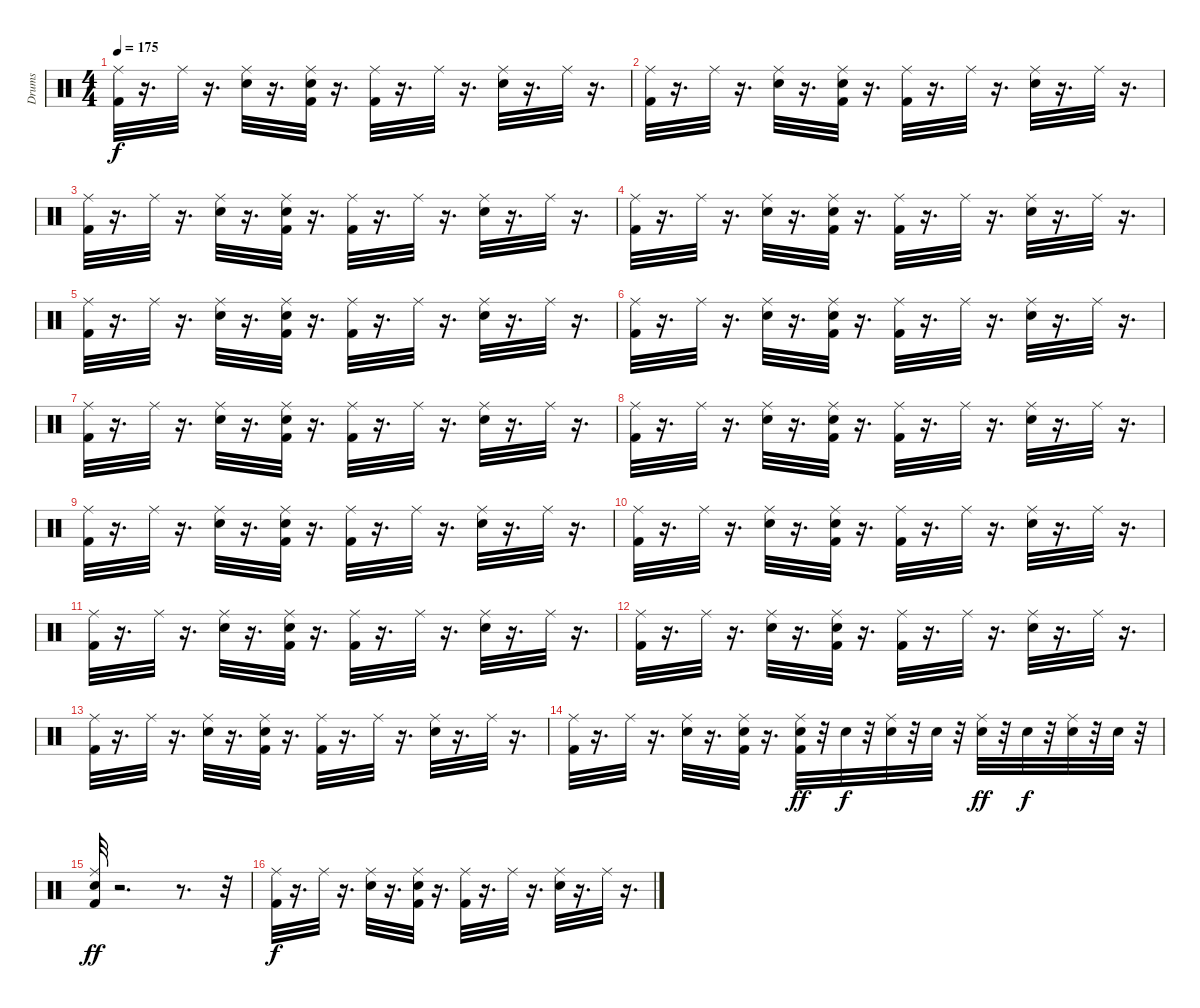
\track ("Drums" "Drums") {instrument percussion}
\staff {score}
\articulation defaults
\ts (4 4)
\tempo 175
\clef neutral
\ks c
("Kick (hit) 2" "Ride (middle)").32{dy f} r.16{d} "Ride (middle)".32 r.16{d} ("Snare (hit) 2" "Ride (middle)").32 r.16{d} ("Snare (hit) 2" "Ride (middle)" "Kick (hit) 2").32 r.16{d} ("Ride (middle)" "Kick (hit) 2").32 r.16{d} "Ride (middle)".32 r.16{d} ("Snare (hit) 2" "Ride (middle)").32 r.16{d} "Ride (middle)".32 r.16{d} |
("Kick (hit) 2" "Ride (middle)").32 r.16{d} "Ride (middle)".32 r.16{d} ("Ride (middle)" "Snare (hit) 2").32 r.16{d} ("Kick (hit) 2" "Snare (hit) 2" "Ride (middle)").32 r.16{d} ("Kick (hit) 2" "Ride (middle)").32 r.16{d} "Ride (middle)".32 r.16{d} ("Snare (hit) 2" "Ride (middle)").32 r.16{d} "Ride (middle)".32 r.16{d} |
("Kick (hit) 2" "Ride (middle)").32 r.16{d} "Ride (middle)".32 r.16{d} ("Ride (middle)" "Snare (hit) 2").32 r.16{d} ("Snare (hit) 2" "Kick (hit) 2" "Ride (middle)").32 r.16{d} ("Kick (hit) 2" "Ride (middle)").32 r.16{d} "Ride (middle)".32 r.16{d} ("Snare (hit) 2" "Ride (middle)").32 r.16{d} "Ride (middle)".32 r.16{d} |
("Ride (middle)" "Kick (hit) 2").32 r.16{d} "Ride (middle)".32 r.16{d} ("Ride (middle)" "Snare (hit) 2").32 r.16{d} ("Ride (middle)" "Snare (hit) 2" "Kick (hit) 2").32 r.16{d} ("Ride (middle)" "Kick (hit) 2").32 r.16{d} "Ride (middle)".32 r.16{d} ("Ride (middle)" "Snare (hit) 2").32 r.16{d} "Ride (middle)".32 r.16{d} |
("Kick (hit) 2" "Ride (middle)").32 r.16{d} "Ride (middle)".32 r.16{d} ("Snare (hit) 2" "Ride (middle)").32 r.16{d} ("Snare (hit) 2" "Ride (middle)" "Kick (hit) 2").32 r.16{d} ("Ride (middle)" "Kick (hit) 2").32 r.16{d} "Ride (middle)".32 r.16{d} ("Snare (hit) 2" "Ride (middle)").32 r.16{d} "Ride (middle)".32 r.16{d} |
("Kick (hit) 2" "Ride (middle)").32 r.16{d} "Ride (middle)".32 r.16{d} ("Ride (middle)" "Snare (hit) 2").32 r.16{d} ("Kick (hit) 2" "Snare (hit) 2" "Ride (middle)").32 r.16{d} ("Kick (hit) 2" "Ride (middle)").32 r.16{d} "Ride (middle)".32 r.16{d} ("Snare (hit) 2" "Ride (middle)").32 r.16{d} "Ride (middle)".32 r.16{d} |
("Kick (hit) 2" "Ride (middle)").32 r.16{d} "Ride (middle)".32 r.16{d} ("Ride (middle)" "Snare (hit) 2").32 r.16{d} ("Snare (hit) 2" "Kick (hit) 2" "Ride (middle)").32 r.16{d} ("Kick (hit) 2" "Ride (middle)").32 r.16{d} "Ride (middle)".32 r.16{d} ("Snare (hit) 2" "Ride (middle)").32 r.16{d} "Ride (middle)".32 r.16{d} |
("Ride (middle)" "Kick (hit) 2").32 r.16{d} "Ride (middle)".32 r.16{d} ("Ride (middle)" "Snare (hit) 2").32 r.16{d} ("Ride (middle)" "Snare (hit) 2" "Kick (hit) 2").32 r.16{d} ("Ride (middle)" "Kick (hit) 2").32 r.16{d} "Ride (middle)".32 r.16{d} ("Ride (middle)" "Snare (hit) 2").32 r.16{d} "Ride (middle)".32 r.16{d} |
("Kick (hit) 2" "Ride (middle)").32 r.16{d} "Ride (middle)".32 r.16{d} ("Snare (hit) 2" "Ride (middle)").32 r.16{d} ("Snare (hit) 2" "Ride (middle)" "Kick (hit) 2").32 r.16{d} ("Ride (middle)" "Kick (hit) 2").32 r.16{d} "Ride (middle)".32 r.16{d} ("Snare (hit) 2" "Ride (middle)").32 r.16{d} "Ride (middle)".32 r.16{d} |
("Kick (hit) 2" "Ride (middle)").32 r.16{d} "Ride (middle)".32 r.16{d} ("Ride (middle)" "Snare (hit) 2").32 r.16{d} ("Kick (hit) 2" "Snare (hit) 2" "Ride (middle)").32 r.16{d} ("Kick (hit) 2" "Ride (middle)").32 r.16{d} "Ride (middle)".32 r.16{d} ("Snare (hit) 2" "Ride (middle)").32 r.16{d} "Ride (middle)".32 r.16{d} |
("Kick (hit) 2" "Ride (middle)").32 r.16{d} "Ride (middle)".32 r.16{d} ("Ride (middle)" "Snare (hit) 2").32 r.16{d} ("Snare (hit) 2" "Kick (hit) 2" "Ride (middle)").32 r.16{d} ("Kick (hit) 2" "Ride (middle)").32 r.16{d} "Ride (middle)".32 r.16{d} ("Snare (hit) 2" "Ride (middle)").32 r.16{d} "Ride (middle)".32 r.16{d} |
("Ride (middle)" "Kick (hit) 2").32 r.16{d} "Ride (middle)".32 r.16{d} ("Ride (middle)" "Snare (hit) 2").32 r.16{d} ("Ride (middle)" "Snare (hit) 2" "Kick (hit) 2").32 r.16{d} ("Ride (middle)" "Kick (hit) 2").32 r.16{d} "Ride (middle)".32 r.16{d} ("Ride (middle)" "Snare (hit) 2").32 r.16{d} "Ride (middle)".32 r.16{d} |
("Kick (hit) 2" "Ride (middle)").32 r.16{d} "Ride (middle)".32 r.16{d} ("Snare (hit) 2" "Ride (middle)").32 r.16{d} ("Snare (hit) 2" "Ride (middle)" "Kick (hit) 2").32 r.16{d} ("Ride (middle)" "Kick (hit) 2").32 r.16{d} "Ride (middle)".32 r.16{d} ("Snare (hit) 2" "Ride (middle)").32 r.16{d} "Ride (middle)".32 r.16{d} |
("Kick (hit) 2" "Ride (middle)").32 r.16{d} "Ride (middle)".32 r.16{d} ("Ride (middle)" "Snare (hit) 2").32 r.16{d} ("Kick (hit) 2" "Snare (hit) 2" "Ride (middle)").32 r.16{d} ("Snare (hit) 2" "Kick (hit) 2" "Ride (middle)").32{dy ff} r.32 "Snare (hit) 2".32{dy f} r.32 ("Snare (hit) 2" "Ride (middle)").32 r.32 "Snare (hit) 2".32 r.32 ("Snare (hit) 2" "Ride (middle)").32{dy ff} r.32 "Snare (hit) 2".32{dy f} r.32 ("Snare (hit) 2" "Ride (middle)").32 r.32 "Snare (hit) 2".32 r.32 |
("Snare (hit) 2" "Kick (hit) 2" "Ride (middle)").32{dy ff} r.2{d} r.8{d} r.32 |
("Ride (middle)" "Kick (hit) 2").32{dy f} r.16{d} "Ride (middle)".32 r.16{d} ("Ride (middle)" "Snare (hit) 2").32 r.16{d} ("Ride (middle)" "Snare (hit) 2" "Kick (hit) 2").32 r.16{d} ("Ride (middle)" "Kick (hit) 2").32 r.16{d} "Ride (middle)".32 r.16{d} ("Ride (middle)" "Snare (hit) 2").32 r.16{d} "Ride (middle)".32 r.16{d}
